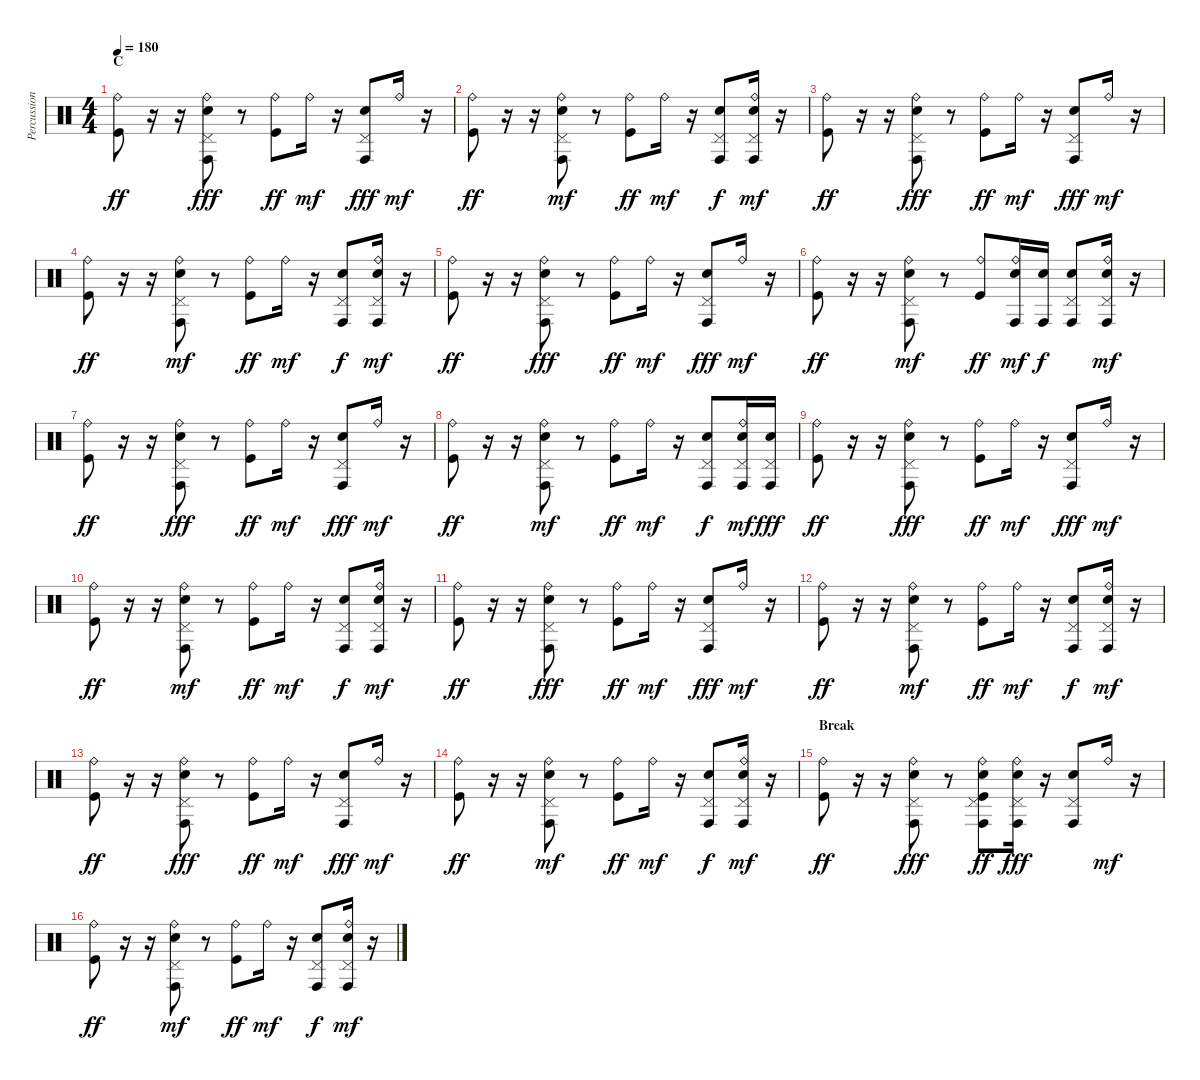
\track ("Percussion" "Percussion") {instrument percussion}
\staff {score}
\articulation defaults
\ts (4 4)
\section ("" "C")
\tempo 180
\clef neutral
\ks c
("Ride (bell)" "Kick (hit)").8{dy ff} r.16 r.16 ("Ride (bell)" "Pedal Hi-Hat (hit)" "Conga high (hit)" "Electric Snare (hit)").8{dy fff} r.8 ("Ride (bell)" "Kick (hit)").8{dy ff} "Ride (bell)".16{dy mf} r.16 ("Pedal Hi-Hat (hit)" "Conga high (hit)" "Electric Snare (hit)").8{dy fff} "Ride (bell)".16{dy mf} r.16 |
("Ride (bell)" "Kick (hit)").8{dy ff} r.16 r.16 ("Ride (bell)" "Pedal Hi-Hat (hit)" "Conga high (hit)" "Electric Snare (hit)").8{dy mf} r.8 ("Ride (bell)" "Kick (hit)").8{dy ff} "Ride (bell)".16{dy mf} r.16 ("Pedal Hi-Hat (hit)" "Conga high (hit)" "Electric Snare (hit)").8{dy f} ("Ride (bell)" "Pedal Hi-Hat (hit)" "Conga high (hit)" "Electric Snare (hit)").16{dy mf} r.16 |
("Ride (bell)" "Kick (hit)").8{dy ff} r.16 r.16 ("Ride (bell)" "Pedal Hi-Hat (hit)" "Conga high (hit)" "Electric Snare (hit)").8{dy fff} r.8 ("Ride (bell)" "Kick (hit)").8{dy ff} "Ride (bell)".16{dy mf} r.16 ("Pedal Hi-Hat (hit)" "Conga high (hit)" "Electric Snare (hit)").8{dy fff} "Ride (bell)".16{dy mf} r.16 |
("Ride (bell)" "Kick (hit)").8{dy ff} r.16 r.16 ("Ride (bell)" "Pedal Hi-Hat (hit)" "Conga high (hit)" "Electric Snare (hit)").8{dy mf} r.8 ("Ride (bell)" "Kick (hit)").8{dy ff} "Ride (bell)".16{dy mf} r.16 ("Pedal Hi-Hat (hit)" "Conga high (hit)" "Electric Snare (hit)").8{dy f} ("Ride (bell)" "Pedal Hi-Hat (hit)" "Conga high (hit)" "Electric Snare (hit)").16{dy mf} r.16 |
("Ride (bell)" "Kick (hit)").8{dy ff} r.16 r.16 ("Ride (bell)" "Pedal Hi-Hat (hit)" "Conga high (hit)" "Electric Snare (hit)").8{dy fff} r.8 ("Ride (bell)" "Kick (hit)").8{dy ff} "Ride (bell)".16{dy mf} r.16 ("Pedal Hi-Hat (hit)" "Conga high (hit)" "Electric Snare (hit)").8{dy fff} "Ride (bell)".16{dy mf} r.16 |
("Ride (bell)" "Kick (hit)").8{dy ff} r.16 r.16 ("Ride (bell)" "Pedal Hi-Hat (hit)" "Conga high (hit)" "Electric Snare (hit)").8{dy mf} r.8 ("Ride (bell)" "Kick (hit)").8{dy ff} ("Ride (bell)" "Conga high (hit)" "Electric Snare (hit)").16{dy mf} ("Conga high (hit)" "Electric Snare (hit)").16{dy f} ("Pedal Hi-Hat (hit)" "Conga high (hit)" "Electric Snare (hit)").8 ("Ride (bell)" "Pedal Hi-Hat (hit)" "Conga high (hit)" "Electric Snare (hit)").16{dy mf} r.16 |
("Ride (bell)" "Kick (hit)").8{dy ff} r.16 r.16 ("Ride (bell)" "Pedal Hi-Hat (hit)" "Conga high (hit)" "Electric Snare (hit)").8{dy fff} r.8 ("Ride (bell)" "Kick (hit)").8{dy ff} "Ride (bell)".16{dy mf} r.16 ("Pedal Hi-Hat (hit)" "Conga high (hit)" "Electric Snare (hit)").8{dy fff} "Ride (bell)".16{dy mf} r.16 |
("Ride (bell)" "Kick (hit)").8{dy ff} r.16 r.16 ("Ride (bell)" "Pedal Hi-Hat (hit)" "Conga high (hit)" "Electric Snare (hit)").8{dy mf} r.8 ("Ride (bell)" "Kick (hit)").8{dy ff} "Ride (bell)".16{dy mf} r.16 ("Pedal Hi-Hat (hit)" "Conga high (hit)" "Electric Snare (hit)").8{dy f} ("Ride (bell)" "Pedal Hi-Hat (hit)" "Conga high (hit)" "Electric Snare (hit)").16{dy mf} ("Pedal Hi-Hat (hit)" "Conga high (hit)" "Electric Snare (hit)").16{dy fff} |
("Ride (bell)" "Kick (hit)").8{dy ff} r.16 r.16 ("Ride (bell)" "Pedal Hi-Hat (hit)" "Conga high (hit)" "Electric Snare (hit)").8{dy fff} r.8 ("Ride (bell)" "Kick (hit)").8{dy ff} "Ride (bell)".16{dy mf} r.16 ("Pedal Hi-Hat (hit)" "Conga high (hit)" "Electric Snare (hit)").8{dy fff} "Ride (bell)".16{dy mf} r.16 |
("Ride (bell)" "Kick (hit)").8{dy ff} r.16 r.16 ("Ride (bell)" "Pedal Hi-Hat (hit)" "Conga high (hit)" "Electric Snare (hit)").8{dy mf} r.8 ("Ride (bell)" "Kick (hit)").8{dy ff} "Ride (bell)".16{dy mf} r.16 ("Pedal Hi-Hat (hit)" "Conga high (hit)" "Electric Snare (hit)").8{dy f} ("Ride (bell)" "Pedal Hi-Hat (hit)" "Conga high (hit)" "Electric Snare (hit)").16{dy mf} r.16 |
("Ride (bell)" "Kick (hit)").8{dy ff} r.16 r.16 ("Ride (bell)" "Pedal Hi-Hat (hit)" "Conga high (hit)" "Electric Snare (hit)").8{dy fff} r.8 ("Ride (bell)" "Kick (hit)").8{dy ff} "Ride (bell)".16{dy mf} r.16 ("Pedal Hi-Hat (hit)" "Conga high (hit)" "Electric Snare (hit)").8{dy fff} "Ride (bell)".16{dy mf} r.16 |
("Ride (bell)" "Kick (hit)").8{dy ff} r.16 r.16 ("Ride (bell)" "Pedal Hi-Hat (hit)" "Conga high (hit)" "Electric Snare (hit)").8{dy mf} r.8 ("Ride (bell)" "Kick (hit)").8{dy ff} "Ride (bell)".16{dy mf} r.16 ("Pedal Hi-Hat (hit)" "Conga high (hit)" "Electric Snare (hit)").8{dy f} ("Ride (bell)" "Pedal Hi-Hat (hit)" "Conga high (hit)" "Electric Snare (hit)").16{dy mf} r.16 |
("Ride (bell)" "Kick (hit)").8{dy ff} r.16 r.16 ("Ride (bell)" "Pedal Hi-Hat (hit)" "Conga high (hit)" "Electric Snare (hit)").8{dy fff} r.8 ("Ride (bell)" "Kick (hit)").8{dy ff} "Ride (bell)".16{dy mf} r.16 ("Pedal Hi-Hat (hit)" "Conga high (hit)" "Electric Snare (hit)").8{dy fff} "Ride (bell)".16{dy mf} r.16 |
("Ride (bell)" "Kick (hit)").8{dy ff} r.16 r.16 ("Ride (bell)" "Pedal Hi-Hat (hit)" "Conga high (hit)" "Electric Snare (hit)").8{dy mf} r.8 ("Ride (bell)" "Kick (hit)").8{dy ff} "Ride (bell)".16{dy mf} r.16 ("Pedal Hi-Hat (hit)" "Conga high (hit)" "Electric Snare (hit)").8{dy f} ("Ride (bell)" "Pedal Hi-Hat (hit)" "Conga high (hit)" "Electric Snare (hit)").16{dy mf} r.16 |
\section ("" "Break")
("Ride (bell)" "Kick (hit)").8{dy ff} r.16 r.16 ("Ride (bell)" "Pedal Hi-Hat (hit)" "Conga high (hit)" "Electric Snare (hit)").8{dy fff} r.8 ("Ride (bell)" "Pedal Hi-Hat (hit)" "Conga high (hit)" "Electric Snare (hit)" "Kick (hit)").8{dy ff} ("Ride (bell)" "Pedal Hi-Hat (hit)" "Conga high (hit)" "Electric Snare (hit)").16{dy fff} r.16 ("Pedal Hi-Hat (hit)" "Conga high (hit)" "Electric Snare (hit)").8 "Ride (bell)".16{dy mf} r.16 |
("Ride (bell)" "Kick (hit)").8{dy ff} r.16 r.16 ("Ride (bell)" "Pedal Hi-Hat (hit)" "Conga high (hit)" "Electric Snare (hit)").8{dy mf} r.8 ("Ride (bell)" "Kick (hit)").8{dy ff} "Ride (bell)".16{dy mf} r.16 ("Pedal Hi-Hat (hit)" "Conga high (hit)" "Electric Snare (hit)").8{dy f} ("Ride (bell)" "Pedal Hi-Hat (hit)" "Conga high (hit)" "Electric Snare (hit)").16{dy mf} r.16
